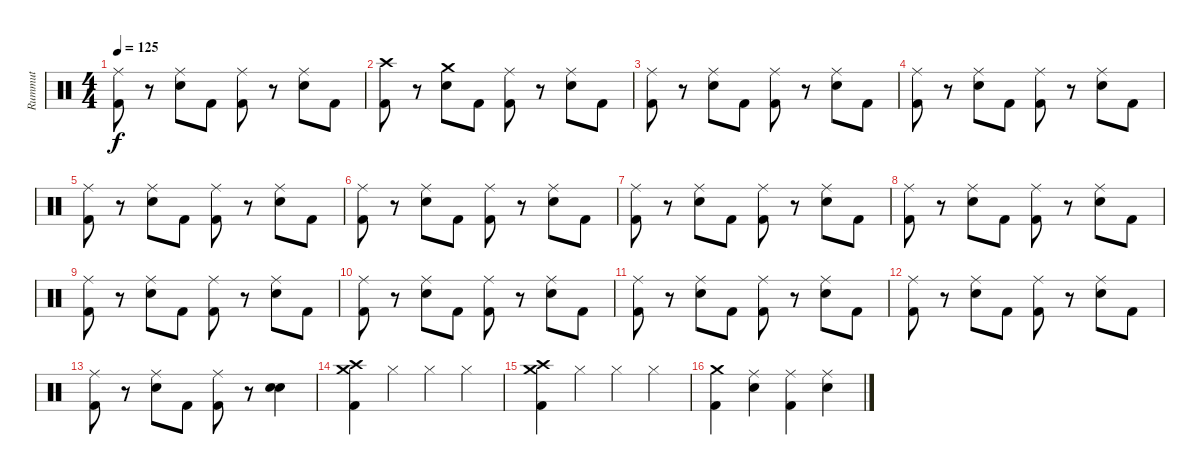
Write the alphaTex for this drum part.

\track ("Rummut" "Rummut") {instrument percussion}
\staff {score}
\articulation defaults
\ts (4 4)
\tempo 125
\clef neutral
\ks c
("Ride (middle)" "Kick (hit) 2").8{dy f} r.8 ("Ride (middle)" "Snare (hit) 2").8 "Kick (hit) 2".8 ("Ride (middle)" "Kick (hit) 2").8 r.8 ("Ride (middle)" "Snare (hit) 2").8 "Kick (hit) 2".8 |
("Crash high (hit)" "Kick (hit) 2").8 r.8 ("Crash medium (hit)" "Snare (hit) 2").8 "Kick (hit) 2".8 ("Ride (middle)" "Kick (hit) 2").8 r.8 ("Ride (middle)" "Snare (hit) 2").8 "Kick (hit) 2".8 |
("Ride (middle)" "Kick (hit) 2").8 r.8 ("Ride (middle)" "Snare (hit) 2").8 "Kick (hit) 2".8 ("Ride (middle)" "Kick (hit) 2").8 r.8 ("Ride (middle)" "Snare (hit) 2").8 "Kick (hit) 2".8 |
("Ride (middle)" "Kick (hit) 2").8 r.8 ("Ride (middle)" "Snare (hit) 2").8 "Kick (hit) 2".8 ("Ride (middle)" "Kick (hit) 2").8 r.8 ("Ride (middle)" "Snare (hit) 2").8 "Kick (hit) 2".8 |
("Ride (middle)" "Kick (hit) 2").8 r.8 ("Ride (middle)" "Snare (hit) 2").8 "Kick (hit) 2".8 ("Ride (middle)" "Kick (hit) 2").8 r.8 ("Ride (middle)" "Snare (hit) 2").8 "Kick (hit) 2".8 |
("Ride (middle)" "Kick (hit) 2").8 r.8 ("Ride (middle)" "Snare (hit) 2").8 "Kick (hit) 2".8 ("Ride (middle)" "Kick (hit) 2").8 r.8 ("Ride (middle)" "Snare (hit) 2").8 "Kick (hit) 2".8 |
("Ride (middle)" "Kick (hit) 2").8 r.8 ("Ride (middle)" "Snare (hit) 2").8 "Kick (hit) 2".8 ("Ride (middle)" "Kick (hit) 2").8 r.8 ("Ride (middle)" "Snare (hit) 2").8 "Kick (hit) 2".8 |
("Ride (middle)" "Kick (hit) 2").8 r.8 ("Ride (middle)" "Snare (hit) 2").8 "Kick (hit) 2".8 ("Ride (middle)" "Kick (hit) 2").8 r.8 ("Ride (middle)" "Snare (hit) 2").8 "Kick (hit) 2".8 |
("Ride (middle)" "Kick (hit) 2").8 r.8 ("Ride (middle)" "Snare (hit) 2").8 "Kick (hit) 2".8 ("Ride (middle)" "Kick (hit) 2").8 r.8 ("Ride (middle)" "Snare (hit) 2").8 "Kick (hit) 2".8 |
("Ride (middle)" "Kick (hit) 2").8 r.8 ("Ride (middle)" "Snare (hit) 2").8 "Kick (hit) 2".8 ("Ride (middle)" "Kick (hit) 2").8 r.8 ("Ride (middle)" "Snare (hit) 2").8 "Kick (hit) 2".8 |
("Ride (middle)" "Kick (hit) 2").8 r.8 ("Ride (middle)" "Snare (hit) 2").8 "Kick (hit) 2".8 ("Ride (middle)" "Kick (hit) 2").8 r.8 ("Ride (middle)" "Snare (hit) 2").8 "Kick (hit) 2".8 |
("Ride (middle)" "Kick (hit) 2").8 r.8 ("Ride (middle)" "Snare (hit) 2").8 "Kick (hit) 2".8 ("Ride (middle)" "Kick (hit) 2").8 r.8 ("Ride (middle)" "Snare (hit) 2").8 "Kick (hit) 2".8 |
("Ride (middle)" "Kick (hit) 2").8 r.8 ("Ride (middle)" "Snare (hit) 2").8 "Kick (hit) 2".8 ("Ride (middle)" "Kick (hit) 2").8 r.8 ("Snare (hit) 2" "Snare (hit) 2").4 |
("Crash medium (hit)" "Crash high (hit)" "Kick (hit) 2").4 "Hi-Hat (closed)".4 "Hi-Hat (closed)".4 "Hi-Hat (closed)".4 |
("Crash medium (hit)" "Crash high (hit)" "Kick (hit) 2").4 "Hi-Hat (closed)".4 "Hi-Hat (closed)".4 "Hi-Hat (closed)".4 |
("Crash medium (hit)" "Kick (hit) 2").4 ("Ride (middle)" "Snare (hit) 2").4 ("Ride (middle)" "Kick (hit) 2").4 ("Ride (middle)" "Snare (hit) 2").4
